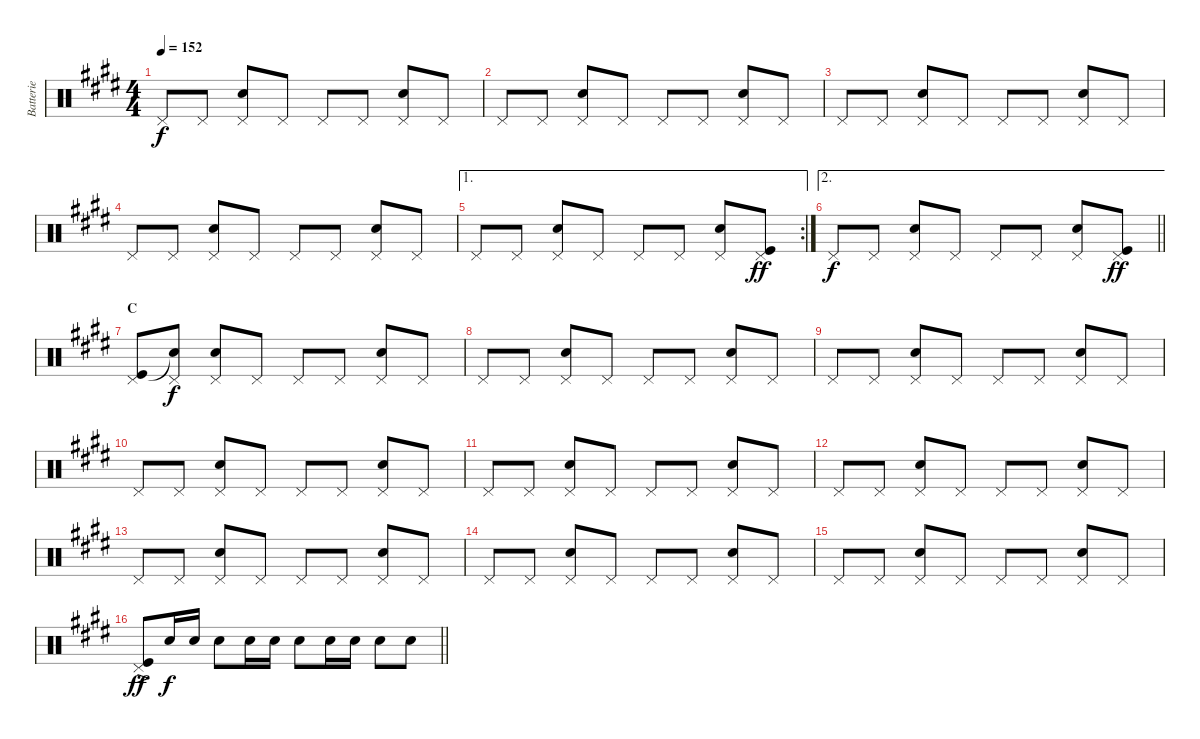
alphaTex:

\track ("Batterie" "Batterie") {instrument percussion}
\staff {score}
\articulation defaults
\ts (4 4)
\tempo 152
\clef neutral
\ks e "Pedal Hi-Hat (hit)".8{dy f} "Pedal Hi-Hat (hit)".8
("Pedal Hi-Hat (hit)" "Electric Snare (hit)").8 "Pedal Hi-Hat (hit)".8 "Pedal Hi-Hat (hit)".8 "Pedal Hi-Hat (hit)".8 ("Pedal Hi-Hat (hit)" "Electric Snare (hit)").8 "Pedal Hi-Hat (hit)".8 |
"Pedal Hi-Hat (hit)".8 "Pedal Hi-Hat (hit)".8 ("Pedal Hi-Hat (hit)" "Electric Snare (hit)").8 "Pedal Hi-Hat (hit)".8 "Pedal Hi-Hat (hit)".8 "Pedal Hi-Hat (hit)".8 ("Pedal Hi-Hat (hit)" "Electric Snare (hit)").8 "Pedal Hi-Hat (hit)".8 |
"Pedal Hi-Hat (hit)".8 "Pedal Hi-Hat (hit)".8 ("Pedal Hi-Hat (hit)" "Electric Snare (hit)").8 "Pedal Hi-Hat (hit)".8 "Pedal Hi-Hat (hit)".8 "Pedal Hi-Hat (hit)".8 ("Pedal Hi-Hat (hit)" "Electric Snare (hit)").8 "Pedal Hi-Hat (hit)".8 |
"Pedal Hi-Hat (hit)".8 "Pedal Hi-Hat (hit)".8 ("Pedal Hi-Hat (hit)" "Electric Snare (hit)").8 "Pedal Hi-Hat (hit)".8 "Pedal Hi-Hat (hit)".8 "Pedal Hi-Hat (hit)".8 ("Pedal Hi-Hat (hit)" "Electric Snare (hit)").8 "Pedal Hi-Hat (hit)".8 |
\ae 1
\rc 2 "Pedal Hi-Hat (hit)".8 "Pedal Hi-Hat (hit)".8
("Pedal Hi-Hat (hit)" "Electric Snare (hit)").8 "Pedal Hi-Hat (hit)".8 "Pedal Hi-Hat (hit)".8 "Pedal Hi-Hat (hit)".8 ("Pedal Hi-Hat (hit)" "Electric Snare (hit)").8 ("Pedal Hi-Hat (hit)" "Kick (hit)").8{dy ff} |
\ae 2
\barLineRight lightlight "Pedal Hi-Hat (hit)".8{dy f} "Pedal Hi-Hat (hit)".8
("Pedal Hi-Hat (hit)" "Electric Snare (hit)").8 "Pedal Hi-Hat (hit)".8 "Pedal Hi-Hat (hit)".8 "Pedal Hi-Hat (hit)".8 ("Pedal Hi-Hat (hit)" "Electric Snare (hit)").8 ("Pedal Hi-Hat (hit)" "Kick (hit)").8{dy ff} |
\section ("" "C")
("Pedal Hi-Hat (hit)" "Kick (hit)").8 ("Pedal Hi-Hat (hit)" "Snare (hit)"{t}).8{dy f} ("Pedal Hi-Hat (hit)" "Electric Snare (hit)").8 "Pedal Hi-Hat (hit)".8 "Pedal Hi-Hat (hit)".8 "Pedal Hi-Hat (hit)".8 ("Pedal Hi-Hat (hit)" "Electric Snare (hit)").8 "Pedal Hi-Hat (hit)".8 |
"Pedal Hi-Hat (hit)".8 "Pedal Hi-Hat (hit)".8 ("Pedal Hi-Hat (hit)" "Electric Snare (hit)").8 "Pedal Hi-Hat (hit)".8 "Pedal Hi-Hat (hit)".8 "Pedal Hi-Hat (hit)".8 ("Pedal Hi-Hat (hit)" "Electric Snare (hit)").8 "Pedal Hi-Hat (hit)".8 |
"Pedal Hi-Hat (hit)".8 "Pedal Hi-Hat (hit)".8 ("Pedal Hi-Hat (hit)" "Electric Snare (hit)").8 "Pedal Hi-Hat (hit)".8 "Pedal Hi-Hat (hit)".8 "Pedal Hi-Hat (hit)".8 ("Pedal Hi-Hat (hit)" "Electric Snare (hit)").8 "Pedal Hi-Hat (hit)".8 |
"Pedal Hi-Hat (hit)".8 "Pedal Hi-Hat (hit)".8 ("Pedal Hi-Hat (hit)" "Electric Snare (hit)").8 "Pedal Hi-Hat (hit)".8 "Pedal Hi-Hat (hit)".8 "Pedal Hi-Hat (hit)".8 ("Pedal Hi-Hat (hit)" "Electric Snare (hit)").8 "Pedal Hi-Hat (hit)".8 |
"Pedal Hi-Hat (hit)".8 "Pedal Hi-Hat (hit)".8 ("Pedal Hi-Hat (hit)" "Electric Snare (hit)").8 "Pedal Hi-Hat (hit)".8 "Pedal Hi-Hat (hit)".8 "Pedal Hi-Hat (hit)".8 ("Pedal Hi-Hat (hit)" "Electric Snare (hit)").8 "Pedal Hi-Hat (hit)".8 |
"Pedal Hi-Hat (hit)".8 "Pedal Hi-Hat (hit)".8 ("Pedal Hi-Hat (hit)" "Electric Snare (hit)").8 "Pedal Hi-Hat (hit)".8 "Pedal Hi-Hat (hit)".8 "Pedal Hi-Hat (hit)".8 ("Pedal Hi-Hat (hit)" "Electric Snare (hit)").8 "Pedal Hi-Hat (hit)".8 |
"Pedal Hi-Hat (hit)".8 "Pedal Hi-Hat (hit)".8 ("Pedal Hi-Hat (hit)" "Electric Snare (hit)").8 "Pedal Hi-Hat (hit)".8 "Pedal Hi-Hat (hit)".8 "Pedal Hi-Hat (hit)".8 ("Pedal Hi-Hat (hit)" "Electric Snare (hit)").8 "Pedal Hi-Hat (hit)".8 |
"Pedal Hi-Hat (hit)".8 "Pedal Hi-Hat (hit)".8 ("Pedal Hi-Hat (hit)" "Electric Snare (hit)").8 "Pedal Hi-Hat (hit)".8 "Pedal Hi-Hat (hit)".8 "Pedal Hi-Hat (hit)".8 ("Pedal Hi-Hat (hit)" "Electric Snare (hit)").8 "Pedal Hi-Hat (hit)".8 |
"Pedal Hi-Hat (hit)".8 "Pedal Hi-Hat (hit)".8 ("Pedal Hi-Hat (hit)" "Electric Snare (hit)").8 "Pedal Hi-Hat (hit)".8 "Pedal Hi-Hat (hit)".8 "Pedal Hi-Hat (hit)".8 ("Pedal Hi-Hat (hit)" "Electric Snare (hit)").8 "Pedal Hi-Hat (hit)".8 |
\barLineRight lightlight
("Pedal Hi-Hat (hit)"{ac} "Kick (hit)"{ac}).8{dy ff} "Electric Snare (hit)".16{dy f} "Electric Snare (hit)".16 "Electric Snare (hit)".8 "Electric Snare (hit)".16 "Electric Snare (hit)".16 "Electric Snare (hit)".8 "Electric Snare (hit)".16 "Electric Snare (hit)".16 "Electric Snare (hit)".8 "Electric Snare (hit)".8
